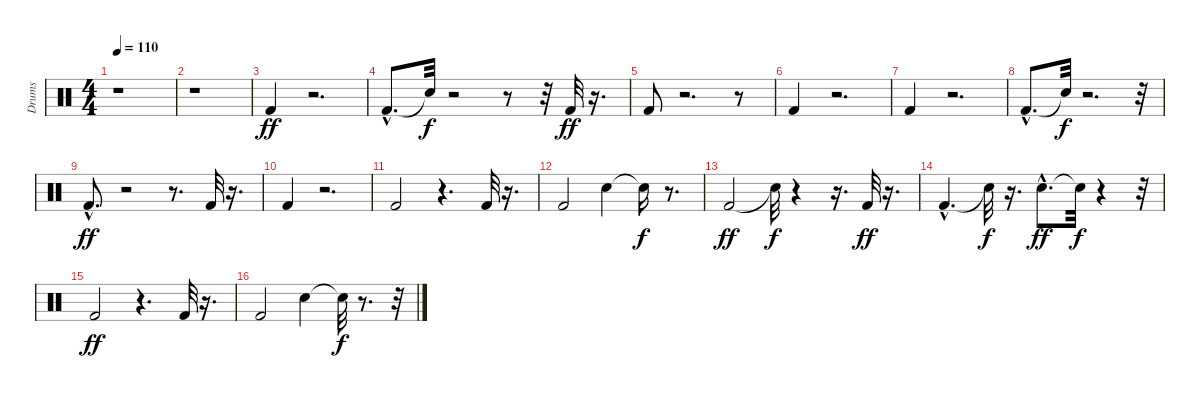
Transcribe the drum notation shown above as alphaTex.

\track ("Drums" "Drums") {instrument percussion}
\staff {score}
\articulation defaults
\ts (4 4)
\tempo 110
\clef neutral
\ks c
r.1{dy ff} |
r.1 |
"Kick (hit) 2".4 r.2{d} |
"Kick (hit) 2"{hac}.8{d} "Snare (hit)"{t}.32{dy f} r.2 r.8 r.32 "Kick (hit) 2".32{dy ff} r.16{d} |
"Kick (hit) 2".8 r.2{d} r.8 |
"Kick (hit) 2".4 r.2{d} |
"Kick (hit) 2".4 r.2{d} |
"Kick (hit) 2"{hac}.8{d} "Snare (hit)"{t}.32{dy f} r.2{d} r.32 |
"Kick (hit) 2"{hac}.8{d dy ff} r.2 r.8{d} "Kick (hit) 2".32 r.16{d} |
"Kick (hit) 2".4 r.2{d} |
"Kick (hit) 2".2 r.4{d} "Kick (hit) 2".32 r.16{d} |
"Kick (hit) 2".2 "Snare (hit) 2".4 "Snare (hit)"{t}.16{dy f} r.8{d} |
"Kick (hit) 2".2{dy ff} "Snare (hit)"{t}.32{dy f} r.4 r.16{d} "Kick (hit) 2".32{dy ff} r.16{d} |
"Kick (hit) 2"{hac}.4{d} "Snare (hit)"{t}.32{dy f} r.16{d} "Snare (hit) 2"{hac}.8{d dy ff} "Snare (hit)"{t}.32{dy f} r.4 r.32 |
"Kick (hit) 2".2{dy ff} r.4{d} "Kick (hit) 2".32 r.16{d} |
"Kick (hit) 2".2 "Snare (hit) 2".4 "Snare (hit)"{t}.32{dy f} r.8{d} r.32
